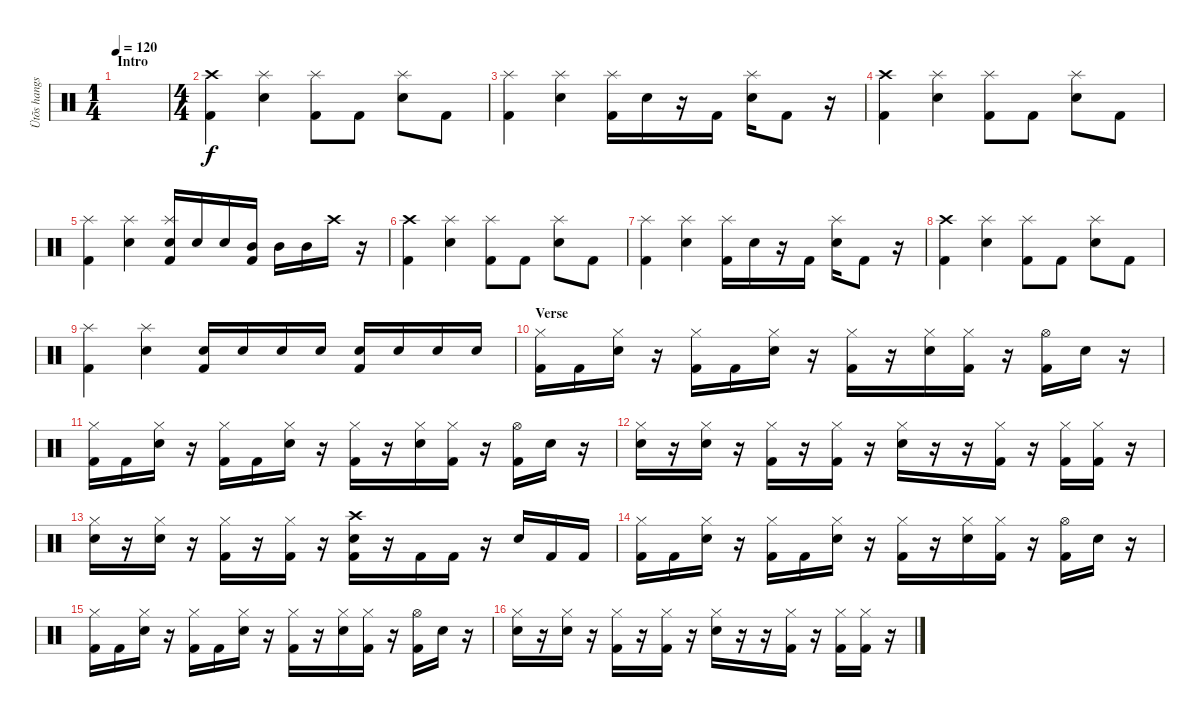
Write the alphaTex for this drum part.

\track ("Ütõs hangszer" "Ütõs hangs") {instrument percussion}
\staff {score}
\articulation defaults
\ts (1 4)
\section ("" "Intro")
\tempo 120
\clef neutral
\ks c
|
\ts (4 4)
("Crash high (hit)" "Kick (hit) 2").4 ("Splash (hit)" "Snare (hit) 2").4 ("Splash (hit)" "Kick (hit) 2").8 "Kick (hit) 2".8 ("Splash (hit)" "Snare (hit) 2").8 "Kick (hit) 2".8 |
("Splash (hit)" "Kick (hit) 2").4 ("Splash (hit)" "Snare (hit) 2").4 ("Splash (hit)" "Kick (hit) 2").16 "Snare (hit) 2".16 r.16 "Kick (hit) 2".16 ("Splash (hit)" "Snare (hit) 2").16 "Kick (hit) 2".8 r.16 |
("Crash high (hit)" "Kick (hit) 2").4 ("Splash (hit)" "Snare (hit) 2").4 ("Splash (hit)" "Kick (hit) 2").8 "Kick (hit) 2".8 ("Splash (hit)" "Snare (hit) 2").8 "Kick (hit) 2".8 |
("Splash (hit)" "Kick (hit) 2").4 ("Splash (hit)" "Snare (hit) 2").4 ("Splash (hit)" "Snare (hit) 2" "Kick (hit) 2").16 "Snare (hit) 2".16 "Snare (hit) 2".16 ("Mid Tom (hit)" "Kick (hit) 2").16 "Mid Tom (hit)".16 "Mid Tom (hit)".16 "Crash high (hit)".16 r.16 |
("Crash high (hit)" "Kick (hit) 2").4 ("Splash (hit)" "Snare (hit) 2").4 ("Splash (hit)" "Kick (hit) 2").8 "Kick (hit) 2".8 ("Splash (hit)" "Snare (hit) 2").8 "Kick (hit) 2".8 |
("Splash (hit)" "Kick (hit) 2").4 ("Splash (hit)" "Snare (hit) 2").4 ("Splash (hit)" "Kick (hit) 2").16 "Snare (hit) 2".16 r.16 "Kick (hit) 2".16 ("Splash (hit)" "Snare (hit) 2").16 "Kick (hit) 2".8 r.16 |
("Crash high (hit)" "Kick (hit) 2").4 ("Splash (hit)" "Snare (hit) 2").4 ("Splash (hit)" "Kick (hit) 2").8 "Kick (hit) 2".8 ("Splash (hit)" "Snare (hit) 2").8 "Kick (hit) 2".8 |
("Splash (hit)" "Kick (hit) 2").4 ("Splash (hit)" "Snare (hit) 2").4 ("Snare (hit) 2" "Kick (hit) 2").16 "Snare (hit) 2".16 "Snare (hit) 2".16 "Snare (hit) 2".16 ("Snare (hit) 2" "Kick (hit) 2").16 "Snare (hit) 2".16 "Snare (hit) 2".16 "Snare (hit) 2".16 |
\section ("" "Verse")
("Hi-Hat (closed)" "Kick (hit) 2").16 "Kick (hit) 2".16 ("Hi-Hat (closed)" "Snare (hit) 2").16 r.16 ("Hi-Hat (closed)" "Kick (hit) 2").16 "Kick (hit) 2".16 ("Hi-Hat (closed)" "Snare (hit) 2").16 r.16 ("Hi-Hat (closed)" "Kick (hit) 2").16 r.16 ("Hi-Hat (closed)" "Snare (hit) 2").16 ("Hi-Hat (closed)" "Kick (hit) 2").16 r.16 ("Hi-Hat (open)" "Kick (hit) 2").16 "Snare (hit) 2".16 r.16 |
("Hi-Hat (closed)" "Kick (hit) 2").16 "Kick (hit) 2".16 ("Hi-Hat (closed)" "Snare (hit) 2").16 r.16 ("Hi-Hat (closed)" "Kick (hit) 2").16 "Kick (hit) 2".16 ("Hi-Hat (closed)" "Snare (hit) 2").16 r.16 ("Hi-Hat (closed)" "Kick (hit) 2").16 r.16 ("Hi-Hat (closed)" "Snare (hit) 2").16 ("Hi-Hat (closed)" "Kick (hit) 2").16 r.16 ("Hi-Hat (open)" "Kick (hit) 2").16 "Snare (hit) 2".16 r.16 |
("Hi-Hat (closed)" "Snare (hit) 2").16 r.16 ("Hi-Hat (closed)" "Snare (hit) 2").16 r.16 ("Hi-Hat (closed)" "Kick (hit) 2").16 r.16 ("Hi-Hat (closed)" "Kick (hit) 2").16 r.16 ("Hi-Hat (closed)" "Snare (hit) 2").16 r.16 r.16 ("Hi-Hat (closed)" "Kick (hit) 2").16 r.16 ("Hi-Hat (closed)" "Kick (hit) 2").16 ("Hi-Hat (closed)" "Kick (hit) 2").16 r.16 |
("Hi-Hat (closed)" "Snare (hit) 2").16 r.16 ("Hi-Hat (closed)" "Snare (hit) 2").16 r.16 ("Hi-Hat (closed)" "Kick (hit) 2").16 r.16 ("Hi-Hat (closed)" "Kick (hit) 2").16 r.16 ("Crash high (hit)" "Snare (hit) 2" "Kick (hit) 2").16 r.16 "Kick (hit) 2".16 "Kick (hit) 2".16 r.16 "Snare (hit) 2".16 "Kick (hit) 2".16 "Kick (hit) 2".16 |
("Hi-Hat (closed)" "Kick (hit) 2").16 "Kick (hit) 2".16 ("Hi-Hat (closed)" "Snare (hit) 2").16 r.16 ("Hi-Hat (closed)" "Kick (hit) 2").16 "Kick (hit) 2".16 ("Hi-Hat (closed)" "Snare (hit) 2").16 r.16 ("Hi-Hat (closed)" "Kick (hit) 2").16 r.16 ("Hi-Hat (closed)" "Snare (hit) 2").16 ("Hi-Hat (closed)" "Kick (hit) 2").16 r.16 ("Hi-Hat (open)" "Kick (hit) 2").16 "Snare (hit) 2".16 r.16 |
("Hi-Hat (closed)" "Kick (hit) 2").16 "Kick (hit) 2".16 ("Hi-Hat (closed)" "Snare (hit) 2").16 r.16 ("Hi-Hat (closed)" "Kick (hit) 2").16 "Kick (hit) 2".16 ("Hi-Hat (closed)" "Snare (hit) 2").16 r.16 ("Hi-Hat (closed)" "Kick (hit) 2").16 r.16 ("Hi-Hat (closed)" "Snare (hit) 2").16 ("Hi-Hat (closed)" "Kick (hit) 2").16 r.16 ("Hi-Hat (open)" "Kick (hit) 2").16 "Snare (hit) 2".16 r.16 |
("Hi-Hat (closed)" "Snare (hit) 2").16 r.16 ("Hi-Hat (closed)" "Snare (hit) 2").16 r.16 ("Hi-Hat (closed)" "Kick (hit) 2").16 r.16 ("Hi-Hat (closed)" "Kick (hit) 2").16 r.16 ("Hi-Hat (closed)" "Snare (hit) 2").16 r.16 r.16 ("Hi-Hat (closed)" "Kick (hit) 2").16 r.16 ("Hi-Hat (closed)" "Kick (hit) 2").16 ("Hi-Hat (closed)" "Kick (hit) 2").16 r.16
